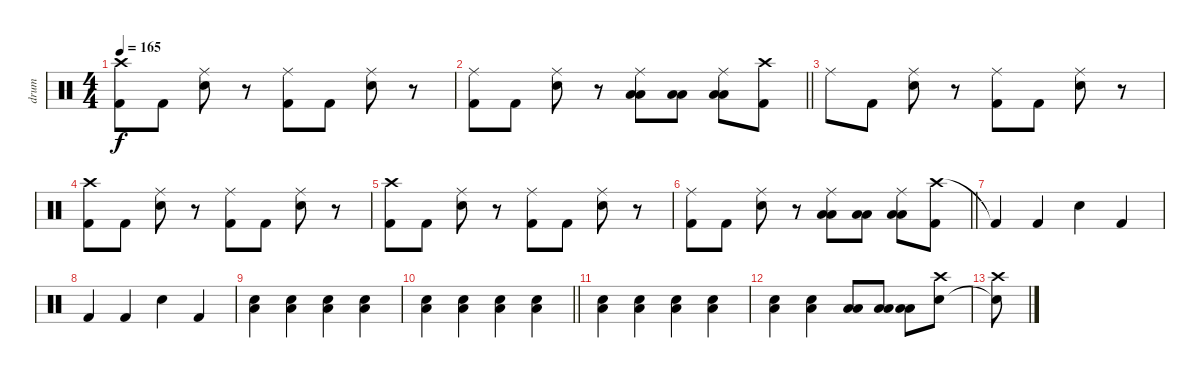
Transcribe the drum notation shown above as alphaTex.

\track ("drum" "drum") {instrument percussion}
\staff {score}
\articulation defaults
\ts (4 4)
\tempo 165
\clef neutral
\ks c
("Crash high (hit)" "Kick (hit) 2").8{dy f} "Kick (hit) 2".8 ("Ride (middle)" "Snare (hit) 2").8 r.8 ("Ride (middle)" "Kick (hit) 2").8 "Kick (hit) 2".8 ("Ride (middle)" "Snare (hit) 2").8 r.8 |
\barLineRight lightlight
("Ride (middle)" "Kick (hit) 2").8 "Kick (hit) 2".8 ("Ride (middle)" "Snare (hit) 2").8 r.8 ("Ride (middle)" "Low Tom (hit)" "Low Floor Tom (hit)").8 ("Low Tom (hit)" "Low Floor Tom (hit)").8 ("Ride (middle)" "Low Tom (hit)" "Low Floor Tom (hit)").8 ("Crash high (hit)" "Kick (hit) 2").8 |
"Ride (middle)".8 "Kick (hit) 2".8 ("Ride (middle)" "Snare (hit) 2").8 r.8 ("Ride (middle)" "Kick (hit) 2").8 "Kick (hit) 2".8 ("Ride (middle)" "Snare (hit) 2").8 r.8 |
("Crash high (hit)" "Kick (hit) 2").8 "Kick (hit) 2".8 ("Ride (middle)" "Snare (hit) 2").8 r.8 ("Ride (middle)" "Kick (hit) 2").8 "Kick (hit) 2".8 ("Ride (middle)" "Snare (hit) 2").8 r.8 |
("Crash high (hit)" "Kick (hit) 2").8 "Kick (hit) 2".8 ("Ride (middle)" "Snare (hit) 2").8 r.8 ("Ride (middle)" "Kick (hit) 2").8 "Kick (hit) 2".8 ("Ride (middle)" "Snare (hit) 2").8 r.8 |
\barLineRight lightlight
("Ride (middle)" "Kick (hit) 2").8 "Kick (hit) 2".8 ("Ride (middle)" "Snare (hit) 2").8 r.8 ("Ride (middle)" "Low Tom (hit)" "Low Floor Tom (hit)").8 ("Low Tom (hit)" "Low Floor Tom (hit)").8 ("Ride (middle)" "Low Tom (hit)" "Low Floor Tom (hit)").8 ("Crash high (hit)" "Kick (hit) 2").8 |
"Kick (hit) 2"{t}.4 "Kick (hit) 2".4 "Snare (hit) 2".4 "Kick (hit) 2".4 |
"Kick (hit) 2".4 "Kick (hit) 2".4 "Snare (hit) 2".4 "Kick (hit) 2".4 |
("Low Floor Tom (hit)" "Snare (hit) 2").4 ("Low Floor Tom (hit)" "Snare (hit) 2").4 ("Low Floor Tom (hit)" "Snare (hit) 2").4 ("Low Floor Tom (hit)" "Snare (hit) 2").4 |
\barLineRight lightlight
("Low Floor Tom (hit)" "Snare (hit) 2").4 ("Low Floor Tom (hit)" "Snare (hit) 2").4 ("Low Floor Tom (hit)" "Snare (hit) 2").4 ("Low Floor Tom (hit)" "Snare (hit) 2").4 |
("Low Floor Tom (hit)" "Snare (hit) 2").4 ("Low Floor Tom (hit)" "Snare (hit) 2").4 ("Low Floor Tom (hit)" "Snare (hit) 2").4 ("Low Floor Tom (hit)" "Snare (hit) 2").4 |
("Low Floor Tom (hit)" "Snare (hit) 2").4 ("Low Floor Tom (hit)" "Snare (hit) 2").4 ("Low Tom (hit)" "Low Floor Tom (hit)").8 ("Low Tom (hit)" "Low Floor Tom (hit)").8 ("Low Tom (hit)" "Low Floor Tom (hit)").8 ("Crash high (hit)" "Snare (hit) 2").8 |
("Crash high (hit)" "Snare (hit) 2"{t}).8
